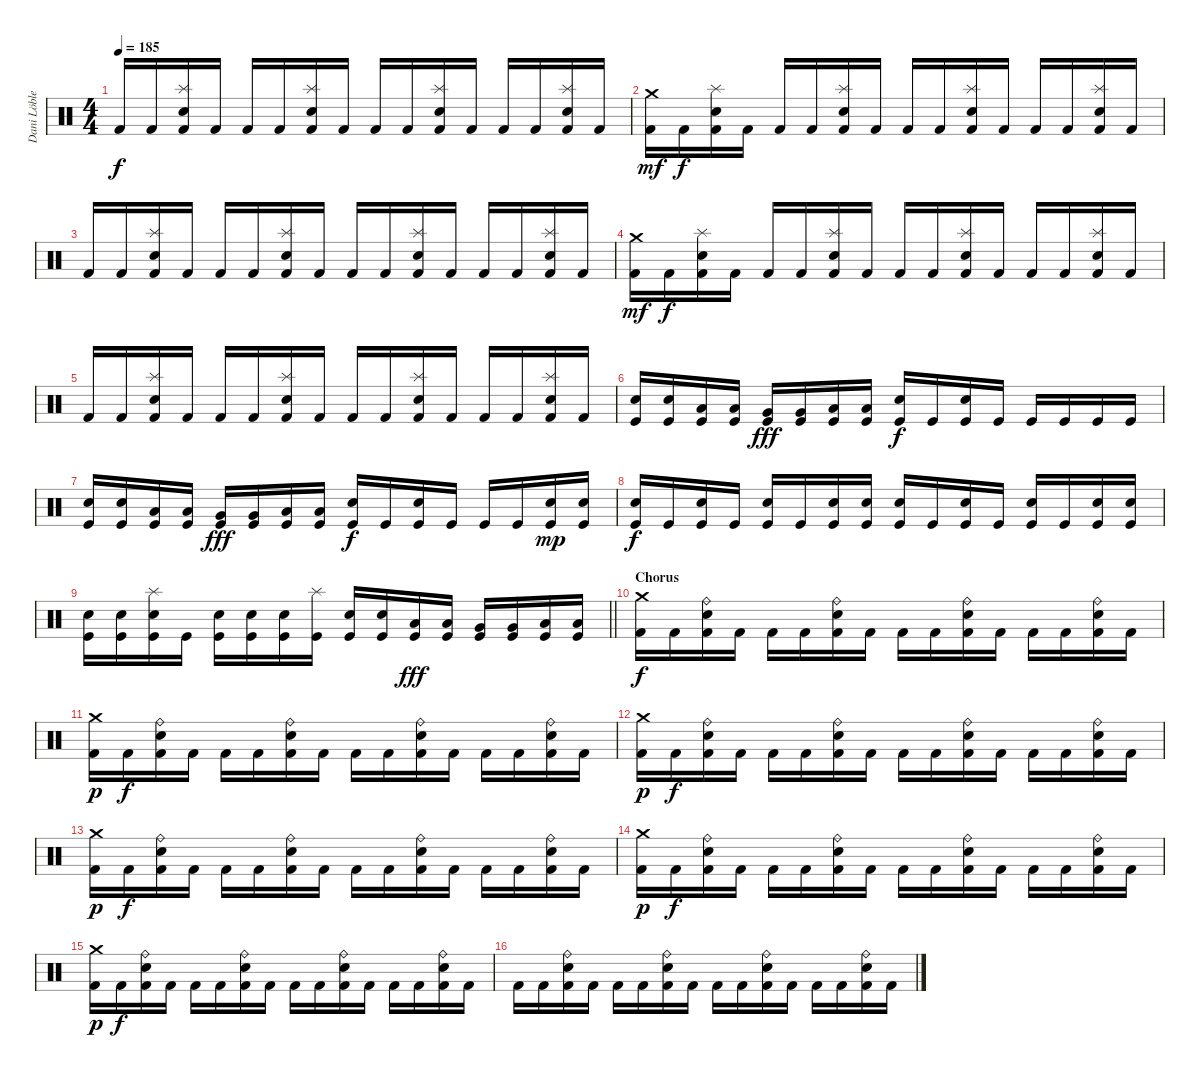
\track ("Dani Löble" "Dani Löble") {instrument percussion}
\staff {score}
\articulation defaults
\ts (4 4)
\tempo 185
\clef neutral
\ks c "Kick (hit) 2".16{dy f} "Kick (hit) 2".16
("Splash (hit)" "Electric Snare (hit)" "Kick (hit) 2").16 "Kick (hit) 2".16 "Kick (hit) 2".16 "Kick (hit) 2".16 ("Splash (hit)" "Electric Snare (hit)" "Kick (hit) 2").16 "Kick (hit) 2".16 "Kick (hit) 2".16 "Kick (hit) 2".16 ("Splash (hit)" "Electric Snare (hit)" "Kick (hit) 2").16 "Kick (hit) 2".16 "Kick (hit) 2".16 "Kick (hit) 2".16 ("Splash (hit)" "Electric Snare (hit)" "Kick (hit) 2").16 "Kick (hit) 2".16 |
("Crash medium (hit)" "Kick (hit) 2").16{dy mf} "Kick (hit) 2".16{dy f} ("Splash (hit)" "Electric Snare (hit)" "Kick (hit) 2").16 "Kick (hit) 2".16 "Kick (hit) 2".16 "Kick (hit) 2".16 ("Splash (hit)" "Electric Snare (hit)" "Kick (hit) 2").16 "Kick (hit) 2".16 "Kick (hit) 2".16 "Kick (hit) 2".16 ("Splash (hit)" "Electric Snare (hit)" "Kick (hit) 2").16 "Kick (hit) 2".16 "Kick (hit) 2".16 "Kick (hit) 2".16 ("Splash (hit)" "Electric Snare (hit)" "Kick (hit) 2").16 "Kick (hit) 2".16 |
"Kick (hit) 2".16 "Kick (hit) 2".16 ("Splash (hit)" "Electric Snare (hit)" "Kick (hit) 2").16 "Kick (hit) 2".16 "Kick (hit) 2".16 "Kick (hit) 2".16 ("Splash (hit)" "Electric Snare (hit)" "Kick (hit) 2").16 "Kick (hit) 2".16 "Kick (hit) 2".16 "Kick (hit) 2".16 ("Splash (hit)" "Electric Snare (hit)" "Kick (hit) 2").16 "Kick (hit) 2".16 "Kick (hit) 2".16 "Kick (hit) 2".16 ("Splash (hit)" "Electric Snare (hit)" "Kick (hit) 2").16 "Kick (hit) 2".16 |
("Crash medium (hit)" "Kick (hit) 2").16{dy mf} "Kick (hit) 2".16{dy f} ("Splash (hit)" "Electric Snare (hit)" "Kick (hit) 2").16 "Kick (hit) 2".16 "Kick (hit) 2".16 "Kick (hit) 2".16 ("Splash (hit)" "Electric Snare (hit)" "Kick (hit) 2").16 "Kick (hit) 2".16 "Kick (hit) 2".16 "Kick (hit) 2".16 ("Splash (hit)" "Electric Snare (hit)" "Kick (hit) 2").16 "Kick (hit) 2".16 "Kick (hit) 2".16 "Kick (hit) 2".16 ("Splash (hit)" "Electric Snare (hit)" "Kick (hit) 2").16 "Kick (hit) 2".16 |
"Kick (hit) 2".16 "Kick (hit) 2".16 ("Splash (hit)" "Electric Snare (hit)" "Kick (hit) 2").16 "Kick (hit) 2".16 "Kick (hit) 2".16 "Kick (hit) 2".16 ("Splash (hit)" "Electric Snare (hit)" "Kick (hit) 2").16 "Kick (hit) 2".16 "Kick (hit) 2".16 "Kick (hit) 2".16 ("Splash (hit)" "Electric Snare (hit)" "Kick (hit) 2").16 "Kick (hit) 2".16 "Kick (hit) 2".16 "Kick (hit) 2".16 ("Splash (hit)" "Electric Snare (hit)" "Kick (hit) 2").16 "Kick (hit) 2".16 |
("Electric Snare (hit)" "Kick (hit)").16 ("Electric Snare (hit)" "Kick (hit)").16 ("Low Tom (hit)" "Kick (hit)").16 ("Low Tom (hit)" "Kick (hit)").16 ("Very Low Tom (hit)" "Kick (hit)").16{dy fff} ("Very Low Tom (hit)" "Kick (hit)").16 ("Low Floor Tom (hit)" "Kick (hit)").16 ("Low Floor Tom (hit)" "Kick (hit)").16 ("Electric Snare (hit)" "Kick (hit)").16{dy f} "Kick (hit)".16 ("Electric Snare (hit)" "Kick (hit)").16 "Kick (hit)".16 "Kick (hit)".16 "Kick (hit)".16 "Kick (hit)".16 "Kick (hit)".16 |
("Electric Snare (hit)" "Kick (hit)").16 ("Electric Snare (hit)" "Kick (hit)").16 ("Low Tom (hit)" "Kick (hit)").16 ("Low Tom (hit)" "Kick (hit)").16 ("Very Low Tom (hit)" "Kick (hit)").16{dy fff} ("Very Low Tom (hit)" "Kick (hit)").16 ("Low Floor Tom (hit)" "Kick (hit)").16 ("Low Floor Tom (hit)" "Kick (hit)").16 ("Electric Snare (hit)" "Kick (hit)").16{dy f} "Kick (hit)".16 ("Electric Snare (hit)" "Kick (hit)").16 "Kick (hit)".16 "Kick (hit)".16 "Kick (hit)".16 ("Electric Snare (hit)" "Kick (hit)").16{dy mp} ("Electric Snare (hit)" "Kick (hit)").16 |
("Electric Snare (hit)" "Kick (hit)").16{dy f} "Kick (hit)".16 ("Electric Snare (hit)" "Kick (hit)").16 "Kick (hit)".16 ("Electric Snare (hit)" "Kick (hit)").16 "Kick (hit)".16 ("Electric Snare (hit)" "Kick (hit)").16 ("Electric Snare (hit)" "Kick (hit)").16 ("Electric Snare (hit)" "Kick (hit)").16 "Kick (hit)".16 ("Electric Snare (hit)" "Kick (hit)").16 "Kick (hit)".16 ("Electric Snare (hit)" "Kick (hit)").16 "Kick (hit)".16 ("Electric Snare (hit)" "Kick (hit)").16 ("Electric Snare (hit)" "Kick (hit)").16 |
\barLineRight lightlight
("Electric Snare (hit)" "Kick (hit)").16 ("Electric Snare (hit)" "Kick (hit)").16 ("Splash (hit)" "Electric Snare (hit)" "Kick (hit)").16 "Kick (hit)".16 ("Electric Snare (hit)" "Kick (hit)").16 ("Electric Snare (hit)" "Kick (hit)").16 ("Electric Snare (hit)" "Kick (hit)").16 ("Splash (hit)" "Kick (hit)").16 ("Electric Snare (hit)" "Kick (hit)").16 ("Electric Snare (hit)" "Kick (hit)").16 ("Low Tom (hit)" "Kick (hit)").16{dy fff} ("Low Tom (hit)" "Kick (hit)").16 ("Very Low Tom (hit)" "Kick (hit)").16 ("Very Low Tom (hit)" "Kick (hit)").16 ("Low Floor Tom (hit)" "Kick (hit)").16 ("Low Floor Tom (hit)" "Kick (hit)").16 |
\section ("" "Chorus")
("Crash medium (hit)" "Kick (hit) 2").16{dy f} "Kick (hit) 2".16 ("Ride (bell)" "Electric Snare (hit)" "Kick (hit) 2").16 "Kick (hit) 2".16 "Kick (hit) 2".16 "Kick (hit) 2".16 ("Ride (bell)" "Electric Snare (hit)" "Kick (hit) 2").16 "Kick (hit) 2".16 "Kick (hit) 2".16 "Kick (hit) 2".16 ("Ride (bell)" "Electric Snare (hit)" "Kick (hit) 2").16 "Kick (hit) 2".16 "Kick (hit) 2".16 "Kick (hit) 2".16 ("Ride (bell)" "Electric Snare (hit)" "Kick (hit) 2").16 "Kick (hit) 2".16 |
("Crash medium (hit)" "Kick (hit) 2").16{dy p} "Kick (hit) 2".16{dy f} ("Ride (bell)" "Electric Snare (hit)" "Kick (hit) 2").16 "Kick (hit) 2".16 "Kick (hit) 2".16 "Kick (hit) 2".16 ("Ride (bell)" "Electric Snare (hit)" "Kick (hit) 2").16 "Kick (hit) 2".16 "Kick (hit) 2".16 "Kick (hit) 2".16 ("Ride (bell)" "Electric Snare (hit)" "Kick (hit) 2").16 "Kick (hit) 2".16 "Kick (hit) 2".16 "Kick (hit) 2".16 ("Ride (bell)" "Electric Snare (hit)" "Kick (hit) 2").16 "Kick (hit) 2".16 |
("Crash medium (hit)" "Kick (hit) 2").16{dy p} "Kick (hit) 2".16{dy f} ("Ride (bell)" "Electric Snare (hit)" "Kick (hit) 2").16 "Kick (hit) 2".16 "Kick (hit) 2".16 "Kick (hit) 2".16 ("Ride (bell)" "Electric Snare (hit)" "Kick (hit) 2").16 "Kick (hit) 2".16 "Kick (hit) 2".16 "Kick (hit) 2".16 ("Ride (bell)" "Electric Snare (hit)" "Kick (hit) 2").16 "Kick (hit) 2".16 "Kick (hit) 2".16 "Kick (hit) 2".16 ("Ride (bell)" "Electric Snare (hit)" "Kick (hit) 2").16 "Kick (hit) 2".16 |
("Crash medium (hit)" "Kick (hit) 2").16{dy p} "Kick (hit) 2".16{dy f} ("Ride (bell)" "Electric Snare (hit)" "Kick (hit) 2").16 "Kick (hit) 2".16 "Kick (hit) 2".16 "Kick (hit) 2".16 ("Ride (bell)" "Electric Snare (hit)" "Kick (hit) 2").16 "Kick (hit) 2".16 "Kick (hit) 2".16 "Kick (hit) 2".16 ("Ride (bell)" "Electric Snare (hit)" "Kick (hit) 2").16 "Kick (hit) 2".16 "Kick (hit) 2".16 "Kick (hit) 2".16 ("Ride (bell)" "Electric Snare (hit)" "Kick (hit) 2").16 "Kick (hit) 2".16 |
("Crash medium (hit)" "Kick (hit) 2").16{dy p} "Kick (hit) 2".16{dy f} ("Ride (bell)" "Electric Snare (hit)" "Kick (hit) 2").16 "Kick (hit) 2".16 "Kick (hit) 2".16 "Kick (hit) 2".16 ("Ride (bell)" "Electric Snare (hit)" "Kick (hit) 2").16 "Kick (hit) 2".16 "Kick (hit) 2".16 "Kick (hit) 2".16 ("Ride (bell)" "Electric Snare (hit)" "Kick (hit) 2").16 "Kick (hit) 2".16 "Kick (hit) 2".16 "Kick (hit) 2".16 ("Ride (bell)" "Electric Snare (hit)" "Kick (hit) 2").16 "Kick (hit) 2".16 |
("Crash medium (hit)" "Kick (hit) 2").16{dy p} "Kick (hit) 2".16{dy f} ("Ride (bell)" "Electric Snare (hit)" "Kick (hit) 2").16 "Kick (hit) 2".16 "Kick (hit) 2".16 "Kick (hit) 2".16 ("Ride (bell)" "Electric Snare (hit)" "Kick (hit) 2").16 "Kick (hit) 2".16 "Kick (hit) 2".16 "Kick (hit) 2".16 ("Ride (bell)" "Electric Snare (hit)" "Kick (hit) 2").16 "Kick (hit) 2".16 "Kick (hit) 2".16 "Kick (hit) 2".16 ("Ride (bell)" "Electric Snare (hit)" "Kick (hit) 2").16 "Kick (hit) 2".16 |
"Kick (hit) 2".16 "Kick (hit) 2".16 ("Ride (bell)" "Electric Snare (hit)" "Kick (hit) 2").16 "Kick (hit) 2".16 "Kick (hit) 2".16 "Kick (hit) 2".16 ("Ride (bell)" "Electric Snare (hit)" "Kick (hit) 2").16 "Kick (hit) 2".16 "Kick (hit) 2".16 "Kick (hit) 2".16 ("Ride (bell)" "Electric Snare (hit)" "Kick (hit) 2").16 "Kick (hit) 2".16 "Kick (hit) 2".16 "Kick (hit) 2".16 ("Ride (bell)" "Electric Snare (hit)" "Kick (hit) 2").16 "Kick (hit) 2".16
